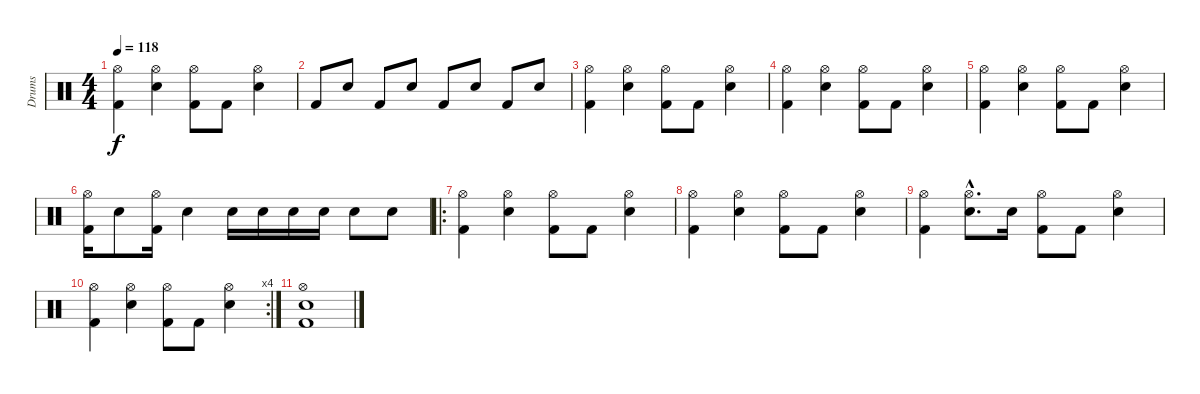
\track ("Drums" "Drums") {instrument percussion}
\staff {score}
\articulation defaults
\ts (4 4)
\tempo 118
\clef neutral
\ks c
("Hi-Hat (open)" "Kick (hit) 2").4{dy f} ("Hi-Hat (open)" "Electric Snare (hit)").4 ("Hi-Hat (open)" "Kick (hit) 2").8 "Kick (hit) 2".8 ("Hi-Hat (open)" "Electric Snare (hit)").4 |
"Kick (hit) 2".8 "Electric Snare (hit)".8 "Kick (hit) 2".8 "Electric Snare (hit)".8 "Kick (hit) 2".8 "Electric Snare (hit)".8 "Kick (hit) 2".8 "Electric Snare (hit)".8 |
("Hi-Hat (open)" "Kick (hit) 2").4 ("Hi-Hat (open)" "Electric Snare (hit)").4 ("Hi-Hat (open)" "Kick (hit) 2").8 "Kick (hit) 2".8 ("Hi-Hat (open)" "Electric Snare (hit)").4 |
("Hi-Hat (open)" "Kick (hit) 2").4 ("Hi-Hat (open)" "Electric Snare (hit)").4 ("Hi-Hat (open)" "Kick (hit) 2").8 "Kick (hit) 2".8 ("Hi-Hat (open)" "Electric Snare (hit)").4 |
("Hi-Hat (open)" "Kick (hit) 2").4 ("Hi-Hat (open)" "Electric Snare (hit)").4 ("Hi-Hat (open)" "Kick (hit) 2").8 "Kick (hit) 2".8 ("Hi-Hat (open)" "Electric Snare (hit)").4 |
("Hi-Hat (open)" "Kick (hit) 2").16 "Electric Snare (hit)".8 ("Hi-Hat (open)" "Kick (hit) 2").16 "Electric Snare (hit)".4 "Electric Snare (hit)".16 "Electric Snare (hit)".16 "Electric Snare (hit)".16 "Electric Snare (hit)".16 "Electric Snare (hit)".8 "Electric Snare (hit)".8 |
\ro
("Hi-Hat (open)" "Kick (hit) 2").4 ("Hi-Hat (open)" "Electric Snare (hit)").4 ("Hi-Hat (open)" "Kick (hit) 2").8 "Kick (hit) 2".8 ("Hi-Hat (open)" "Electric Snare (hit)").4 |
("Hi-Hat (open)" "Kick (hit) 2").4 ("Hi-Hat (open)" "Electric Snare (hit)").4 ("Hi-Hat (open)" "Kick (hit) 2").8 "Kick (hit) 2".8 ("Hi-Hat (open)" "Electric Snare (hit)").4 |
("Hi-Hat (open)" "Kick (hit) 2").4 ("Hi-Hat (open)"{hac} "Electric Snare (hit)"{hac}).8{d} "Electric Snare (hit)".16 ("Hi-Hat (open)" "Kick (hit) 2").8 "Kick (hit) 2".8 ("Hi-Hat (open)" "Electric Snare (hit)").4 |
\rc 4
("Hi-Hat (open)" "Kick (hit) 2").4 ("Hi-Hat (open)" "Electric Snare (hit)").4 ("Hi-Hat (open)" "Kick (hit) 2").8 "Kick (hit) 2".8 ("Hi-Hat (open)" "Electric Snare (hit)").4 |
("Hi-Hat (open)" "Electric Snare (hit)" "Kick (hit) 2").1
